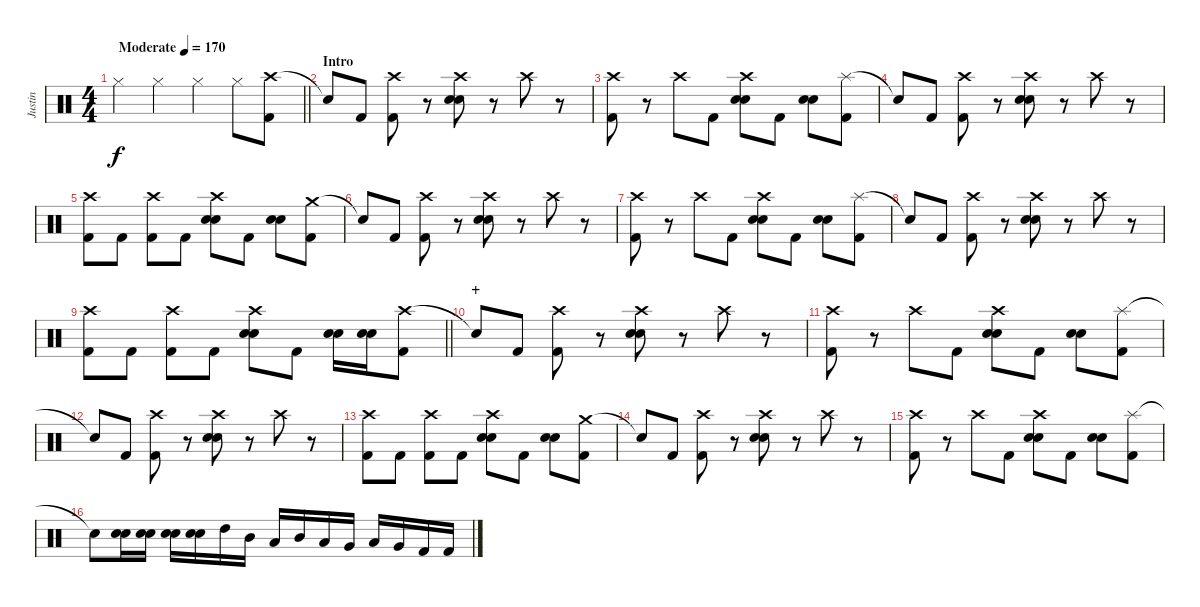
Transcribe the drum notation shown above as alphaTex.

\track ("Justin" "Justin") {instrument percussion}
\staff {score}
\articulation defaults
\ts (4 4)
\tempo (170 "Moderate")
\clef neutral
\barLineRight lightlight
\ks c "Hi-Hat (closed)".4{dy f} "Hi-Hat (closed)".4 "Hi-Hat (closed)".4 "Hi-Hat (closed)".8
("Crash high (hit)" "Kick (hit) 2").8 |
\section ("" "Intro")
"Snare (hit)"{t}.8 "Kick (hit) 2".8 ("Crash high (hit)" "Kick (hit) 2").8 r.8 ("Crash high (hit)" "Electric Snare (hit)" "Snare (hit) 2").8 r.8 "Crash high (hit)".8 r.8 |
("Crash high (hit)" "Kick (hit) 2").8 r.8 "Crash high (hit)".8 "Kick (hit) 2".8 ("Crash high (hit)" "Electric Snare (hit)" "Snare (hit) 2").8 "Kick (hit) 2".8 ("Electric Snare (hit)" "Snare (hit) 2").8 ("Splash (hit)" "Kick (hit) 2").8 |
"Snare (hit)"{t}.8 "Kick (hit) 2".8 ("Crash high (hit)" "Kick (hit) 2").8 r.8 ("Crash high (hit)" "Electric Snare (hit)" "Snare (hit) 2").8 r.8 "Crash high (hit)".8 r.8 |
("Crash high (hit)" "Kick (hit) 2").8 "Kick (hit) 2".8 ("Crash high (hit)" "Kick (hit) 2").8 "Kick (hit) 2".8 ("Crash high (hit)" "Electric Snare (hit)" "Snare (hit) 2").8 "Kick (hit) 2".8 ("Electric Snare (hit)" "Snare (hit) 2").8 ("Crash medium (hit)" "Kick (hit) 2").8 |
"Snare (hit)"{t}.8 "Kick (hit) 2".8 ("Crash high (hit)" "Kick (hit) 2").8 r.8 ("Crash high (hit)" "Electric Snare (hit)" "Snare (hit) 2").8 r.8 "Crash high (hit)".8 r.8 |
("Crash high (hit)" "Kick (hit) 2").8 r.8 "Crash high (hit)".8 "Kick (hit) 2".8 ("Crash high (hit)" "Electric Snare (hit)" "Snare (hit) 2").8 "Kick (hit) 2".8 ("Electric Snare (hit)" "Snare (hit) 2").8 ("Splash (hit)" "Kick (hit) 2").8 |
"Snare (hit)"{t}.8 "Kick (hit) 2".8 ("Crash high (hit)" "Kick (hit) 2").8 r.8 ("Crash high (hit)" "Electric Snare (hit)" "Snare (hit) 2").8 r.8 "Crash high (hit)".8 r.8 |
\barLineRight lightlight
("Crash high (hit)" "Kick (hit) 2").8 "Kick (hit) 2".8 ("Crash high (hit)" "Kick (hit) 2").8 "Kick (hit) 2".8 ("Crash high (hit)" "Electric Snare (hit)" "Snare (hit) 2").8 "Kick (hit) 2".8 ("Electric Snare (hit)" "Snare (hit) 2").16 ("Electric Snare (hit)" "Snare (hit) 2").16 ("Crash high (hit)" "Kick (hit) 2").8 |
\section ("" "+")
"Snare (hit)"{t}.8 "Kick (hit) 2".8 ("Crash high (hit)" "Kick (hit) 2").8 r.8 ("Crash high (hit)" "Electric Snare (hit)" "Snare (hit) 2").8 r.8 "Crash high (hit)".8 r.8 |
("Crash high (hit)" "Kick (hit) 2").8 r.8 "Crash high (hit)".8 "Kick (hit) 2".8 ("Crash high (hit)" "Electric Snare (hit)" "Snare (hit) 2").8 "Kick (hit) 2".8 ("Electric Snare (hit)" "Snare (hit) 2").8 ("Splash (hit)" "Kick (hit) 2").8 |
"Snare (hit)"{t}.8 "Kick (hit) 2".8 ("Crash high (hit)" "Kick (hit) 2").8 r.8 ("Crash high (hit)" "Electric Snare (hit)" "Snare (hit) 2").8 r.8 "Crash high (hit)".8 r.8 |
("Crash high (hit)" "Kick (hit) 2").8 "Kick (hit) 2".8 ("Crash high (hit)" "Kick (hit) 2").8 "Kick (hit) 2".8 ("Crash high (hit)" "Electric Snare (hit)" "Snare (hit) 2").8 "Kick (hit) 2".8 ("Electric Snare (hit)" "Snare (hit) 2").8 ("Crash medium (hit)" "Kick (hit) 2").8 |
"Snare (hit)"{t}.8 "Kick (hit) 2".8 ("Crash high (hit)" "Kick (hit) 2").8 r.8 ("Crash high (hit)" "Electric Snare (hit)" "Snare (hit) 2").8 r.8 "Crash high (hit)".8 r.8 |
("Crash high (hit)" "Kick (hit) 2").8 r.8 "Crash high (hit)".8 "Kick (hit) 2".8 ("Crash high (hit)" "Electric Snare (hit)" "Snare (hit) 2").8 "Kick (hit) 2".8 ("Electric Snare (hit)" "Snare (hit) 2").8 ("Splash (hit)" "Kick (hit) 2").8 |
"Snare (hit)"{t}.8 ("Electric Snare (hit)" "Snare (hit) 2").16 ("Electric Snare (hit)" "Snare (hit) 2").16 ("Electric Snare (hit)" "Snare (hit) 2").16 ("Electric Snare (hit)" "Snare (hit) 2").16 "High Tom (hit)".16 "Mid Tom (hit)".16 "Low Tom (hit)".16 "Mid Tom (hit)".16 "Low Tom (hit)".16 "Very Low Tom (hit)".16 "Low Tom (hit)".16 "Very Low Tom (hit)".16 "Kick (hit) 2".16 "Kick (hit) 2".16
